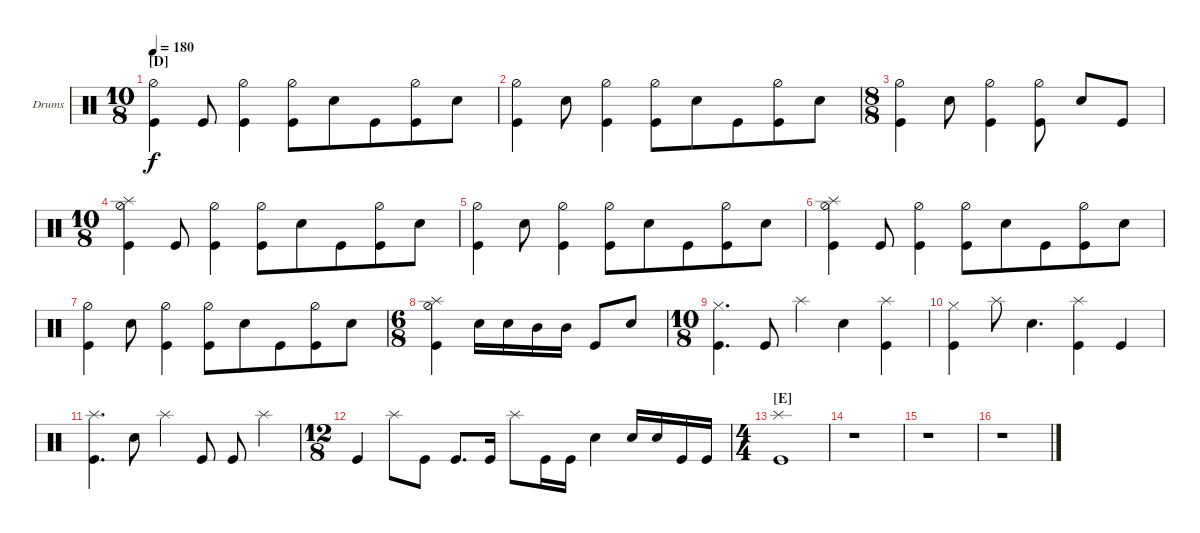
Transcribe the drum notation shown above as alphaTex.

\defaultSystemsLayout 4
\bracketExtendMode groupsimilarinstruments
\firstSystemTrackNameOrientation horizontal
\otherSystemsTrackNameOrientation horizontal
\track ("Drumkit" "Drums") {instrument percussion}
\staff {score}
\articulation defaults
\ts (10 8)
\section ("D" "")
\tempo 180
\clef neutral
\ks c
("Kick (hit)" "Hi-Hat (half)").4{dy f} "Kick (hit)".8 ("Kick (hit)" "Hi-Hat (half)").4 ("Kick (hit)" "Hi-Hat (half)").8 "Snare (hit) 2".8{beam merge} "Kick (hit)".8{beam merge} ("Kick (hit)" "Hi-Hat (half)").8{beam merge} "Snare (hit) 2".8 |
("Kick (hit)" "Hi-Hat (half)").4 "Snare (hit) 2".8 ("Kick (hit)" "Hi-Hat (half)").4 ("Kick (hit)" "Hi-Hat (half)").8 "Snare (hit) 2".8{beam merge} "Kick (hit)".8{beam merge} ("Kick (hit)" "Hi-Hat (half)").8{beam merge} "Snare (hit) 2".8 |
\ts (8 8)
("Kick (hit)" "Hi-Hat (half)").4 "Snare (hit) 2".8 ("Kick (hit)" "Hi-Hat (half)").4 ("Kick (hit)" "Hi-Hat (half)").8 "Snare (hit) 2".8{beam merge} "Kick (hit)".8{beam merge} |
\ts (10 8)
("Kick (hit)" "Splash (hit)" "Hi-Hat (half)").4 "Kick (hit)".8 ("Kick (hit)" "Hi-Hat (half)").4 ("Kick (hit)" "Hi-Hat (half)").8 "Snare (hit) 2".8{beam merge} "Kick (hit)".8{beam merge} ("Kick (hit)" "Hi-Hat (half)").8{beam merge} "Snare (hit) 2".8 |
("Kick (hit)" "Hi-Hat (half)").4 "Snare (hit) 2".8 ("Kick (hit)" "Hi-Hat (half)").4 ("Kick (hit)" "Hi-Hat (half)").8 "Snare (hit) 2".8{beam merge} "Kick (hit)".8{beam merge} ("Kick (hit)" "Hi-Hat (half)").8{beam merge} "Snare (hit) 2".8 |
("Kick (hit)" "Splash (hit)" "Hi-Hat (half)").4 "Kick (hit)".8 ("Kick (hit)" "Hi-Hat (half)").4 ("Kick (hit)" "Hi-Hat (half)").8 "Snare (hit) 2".8{beam merge} "Kick (hit)".8{beam merge} ("Kick (hit)" "Hi-Hat (half)").8{beam merge} "Snare (hit) 2".8 |
("Kick (hit)" "Hi-Hat (half)").4 "Snare (hit) 2".8 ("Kick (hit)" "Hi-Hat (half)").4 ("Kick (hit)" "Hi-Hat (half)").8 "Snare (hit) 2".8{beam merge} "Kick (hit)".8{beam merge} ("Kick (hit)" "Hi-Hat (half)").8{beam merge} "Snare (hit) 2".8 |
\ts (6 8)
("Kick (hit)" "Splash (hit)" "Hi-Hat (half)").4 "Snare (hit) 2".16{beam merge} "Snare (hit) 2".16{beam merge} "Mid Tom (hit)".16{beam merge} "Mid Tom (hit)".16{beam split} "Kick (hit)".8 "Snare (hit) 2".8 |
\ts (10 8)
("Kick (hit)" "Hi-Hat (closed)").4{d} "Kick (hit)".8 "Splash (hit)".4 "Snare (hit) 2".4 ("Kick (hit)" "Splash (hit)").4 |
("Kick (hit)" "Hi-Hat (closed)").4 "Splash (hit)".8 "Snare (hit) 2".4{d} ("Kick (hit)" "Splash (hit)").4 "Kick (hit)".4 |
("Kick (hit)" "Splash (hit)").4{d} "Snare (hit) 2".8 "Splash (hit)".4 "Kick (hit)".8 "Kick (hit)".8 "Splash (hit)".4 |
\ts (12 8)
"Kick (hit)".4 "Splash (hit)".8{beam merge} "Kick (hit)".8{beam split} "Kick (hit)".8{d} "Kick (hit)".16 "Splash (hit)".8 "Kick (hit)".16 "Kick (hit)".16 "Snare (hit) 2".4 "Snare (hit) 2".16{beam merge} "Snare (hit) 2".16{beam merge} "Kick (hit)".16{beam merge} "Kick (hit)".16 |
\ts (4 4)
\section ("E" "")
("Splash (hit)" "Kick (hit)").1 |
r.1 |
r.1 |
r.1
